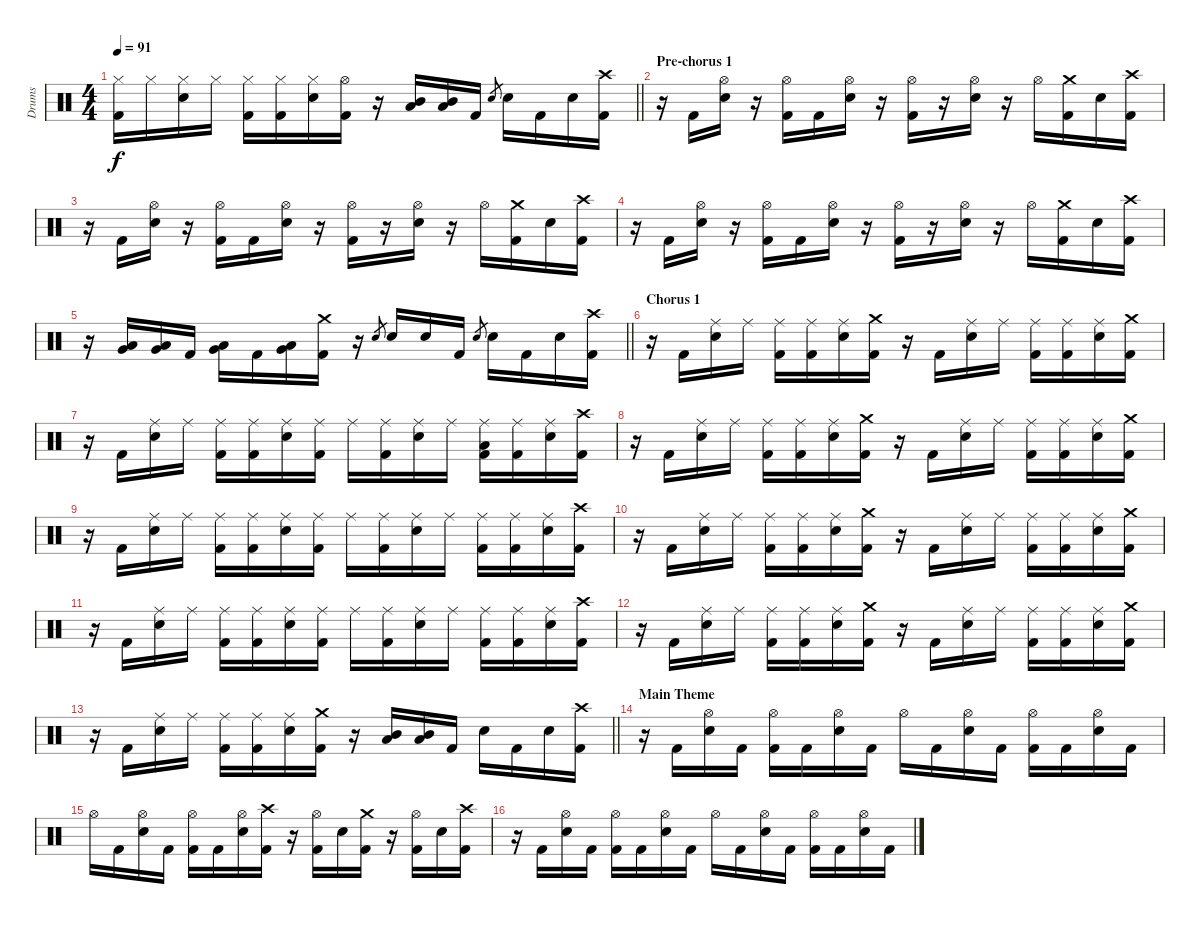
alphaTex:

\track ("Drums" "Drums") {instrument percussion}
\staff {score}
\articulation defaults
\ts (4 4)
\tempo 91
\clef neutral
\barLineRight lightlight
\ks c
("Hi-Hat (closed)" "Kick (hit) 2").16{dy f} "Hi-Hat (closed)".16 ("Hi-Hat (closed)" "Snare (hit) 2").16 "Hi-Hat (closed)".16 ("Hi-Hat (closed)" "Kick (hit) 2").16 ("Hi-Hat (closed)" "Kick (hit) 2").16 ("Hi-Hat (closed)" "Snare (hit) 2").16 ("Hi-Hat (open)" "Kick (hit) 2").16 r.16 ("Mid Tom (hit)" "Low Tom (hit)").16 ("Mid Tom (hit)" "Low Tom (hit)").16 "Kick (hit) 2".16 "Snare (hit) 2".8{gr} "Snare (hit) 2".16 "Kick (hit) 2".16 "Snare (hit) 2".16 ("Crash high (hit)" "Kick (hit) 2").16 |
\section ("" "Pre-chorus 1")
r.16 "Kick (hit) 2".16 ("Hi-Hat (open)" "Snare (hit) 2").16 r.16 ("Hi-Hat (open)" "Kick (hit) 2").16 "Kick (hit) 2".16 ("Hi-Hat (open)" "Snare (hit) 2").16 r.16 ("Hi-Hat (open)" "Kick (hit) 2").16 r.16 ("Hi-Hat (open)" "Snare (hit) 2").16 r.16 "Hi-Hat (open)".16 ("Crash medium (hit)" "Kick (hit) 2").16 "Snare (hit) 2".16 ("Crash high (hit)" "Kick (hit) 2").16 |
r.16 "Kick (hit) 2".16 ("Hi-Hat (open)" "Snare (hit) 2").16 r.16 ("Hi-Hat (open)" "Kick (hit) 2").16 "Kick (hit) 2".16 ("Hi-Hat (open)" "Snare (hit) 2").16 r.16 ("Hi-Hat (open)" "Kick (hit) 2").16 r.16 ("Hi-Hat (open)" "Snare (hit) 2").16 r.16 "Hi-Hat (open)".16 ("Crash medium (hit)" "Kick (hit) 2").16 "Snare (hit) 2".16 ("Crash high (hit)" "Kick (hit) 2").16 |
r.16 "Kick (hit) 2".16 ("Hi-Hat (open)" "Snare (hit) 2").16 r.16 ("Hi-Hat (open)" "Kick (hit) 2").16 "Kick (hit) 2".16 ("Hi-Hat (open)" "Snare (hit) 2").16 r.16 ("Hi-Hat (open)" "Kick (hit) 2").16 r.16 ("Hi-Hat (open)" "Snare (hit) 2").16 r.16 "Hi-Hat (open)".16 ("Crash medium (hit)" "Kick (hit) 2").16 "Snare (hit) 2".16 ("Crash high (hit)" "Kick (hit) 2").16 |
\barLineRight lightlight
r.16 ("Low Tom (hit)" "Very Low Tom (hit)").16 ("Low Tom (hit)" "Very Low Tom (hit)").16 "Kick (hit) 2".16 ("Low Tom (hit)" "Very Low Tom (hit)").16 "Kick (hit) 2".16 ("Low Tom (hit)" "Very Low Tom (hit)").16 ("Crash medium (hit)" "Kick (hit) 2").16 r.16 "Snare (hit) 2".8{gr} "Snare (hit) 2".16 "Snare (hit) 2".16 "Kick (hit) 2".16 "Snare (hit) 2".8{gr} "Snare (hit) 2".16 "Kick (hit) 2".16 "Snare (hit) 2".16 ("Crash high (hit)" "Kick (hit) 2").16 |
\section ("" "Chorus 1")
r.16 "Kick (hit) 2".16 ("Ride (middle)" "Snare (hit) 2").16 "Ride (middle)".16 ("Ride (middle)" "Kick (hit) 2").16 ("Ride (middle)" "Kick (hit) 2").16 ("Ride (middle)" "Snare (hit) 2").16 ("Crash medium (hit)" "Kick (hit) 2").16 r.16 "Kick (hit) 2".16 ("Ride (middle)" "Snare (hit) 2").16 "Ride (middle)".16 ("Ride (middle)" "Kick (hit) 2").16 ("Ride (middle)" "Kick (hit) 2").16 ("Ride (middle)" "Snare (hit) 2").16 ("Crash medium (hit)" "Kick (hit) 2").16 |
r.16 "Kick (hit) 2".16 ("Ride (middle)" "Snare (hit) 2").16 "Ride (middle)".16 ("Ride (middle)" "Kick (hit) 2").16 ("Ride (middle)" "Kick (hit) 2").16 ("Ride (middle)" "Snare (hit) 2").16 ("Ride (middle)" "Kick (hit) 2").16 "Ride (middle)".16 ("Ride (middle)" "Kick (hit) 2").16 ("Ride (middle)" "Snare (hit) 2").16 "Ride (middle)".16 ("Ride (middle)" "Low Tom (hit)" "Kick (hit) 2").16 ("Ride (middle)" "Kick (hit) 2").16 ("Ride (middle)" "Snare (hit) 2").16 ("Crash high (hit)" "Kick (hit) 2").16 |
r.16 "Kick (hit) 2".16 ("Ride (middle)" "Snare (hit) 2").16 "Ride (middle)".16 ("Ride (middle)" "Kick (hit) 2").16 ("Ride (middle)" "Kick (hit) 2").16 ("Ride (middle)" "Snare (hit) 2").16 ("Crash medium (hit)" "Kick (hit) 2").16 r.16 "Kick (hit) 2".16 ("Ride (middle)" "Snare (hit) 2").16 "Ride (middle)".16 ("Ride (middle)" "Kick (hit) 2").16 ("Ride (middle)" "Kick (hit) 2").16 ("Ride (middle)" "Snare (hit) 2").16 ("Crash medium (hit)" "Kick (hit) 2").16 |
r.16 "Kick (hit) 2".16 ("Ride (middle)" "Snare (hit) 2").16 "Ride (middle)".16 ("Ride (middle)" "Kick (hit) 2").16 ("Ride (middle)" "Kick (hit) 2").16 ("Ride (middle)" "Snare (hit) 2").16 ("Ride (middle)" "Kick (hit) 2").16 "Ride (middle)".16 ("Ride (middle)" "Kick (hit) 2").16 ("Ride (middle)" "Snare (hit) 2").16 "Ride (middle)".16 ("Ride (middle)" "Kick (hit) 2").16 ("Ride (middle)" "Kick (hit) 2").16 ("Ride (middle)" "Snare (hit) 2").16 ("Crash high (hit)" "Kick (hit) 2").16 |
r.16 "Kick (hit) 2".16 ("Ride (middle)" "Snare (hit) 2").16 "Ride (middle)".16 ("Ride (middle)" "Kick (hit) 2").16 ("Ride (middle)" "Kick (hit) 2").16 ("Ride (middle)" "Snare (hit) 2").16 ("Crash medium (hit)" "Kick (hit) 2").16 r.16 "Kick (hit) 2".16 ("Ride (middle)" "Snare (hit) 2").16 "Ride (middle)".16 ("Ride (middle)" "Kick (hit) 2").16 ("Ride (middle)" "Kick (hit) 2").16 ("Ride (middle)" "Snare (hit) 2").16 ("Crash medium (hit)" "Kick (hit) 2").16 |
r.16 "Kick (hit) 2".16 ("Ride (middle)" "Snare (hit) 2").16 "Ride (middle)".16 ("Ride (middle)" "Kick (hit) 2").16 ("Ride (middle)" "Kick (hit) 2").16 ("Ride (middle)" "Snare (hit) 2").16 ("Ride (middle)" "Kick (hit) 2").16 "Ride (middle)".16 ("Ride (middle)" "Kick (hit) 2").16 ("Ride (middle)" "Snare (hit) 2").16 "Ride (middle)".16 ("Ride (middle)" "Kick (hit) 2").16 ("Ride (middle)" "Kick (hit) 2").16 ("Ride (middle)" "Snare (hit) 2").16 ("Crash high (hit)" "Kick (hit) 2").16 |
r.16 "Kick (hit) 2".16 ("Ride (middle)" "Snare (hit) 2").16 "Ride (middle)".16 ("Ride (middle)" "Kick (hit) 2").16 ("Ride (middle)" "Kick (hit) 2").16 ("Ride (middle)" "Snare (hit) 2").16 ("Crash medium (hit)" "Kick (hit) 2").16 r.16 "Kick (hit) 2".16 ("Ride (middle)" "Snare (hit) 2").16 "Ride (middle)".16 ("Ride (middle)" "Kick (hit) 2").16 ("Ride (middle)" "Kick (hit) 2").16 ("Ride (middle)" "Snare (hit) 2").16 ("Crash medium (hit)" "Kick (hit) 2").16 |
\barLineRight lightlight
r.16 "Kick (hit) 2".16 ("Ride (middle)" "Snare (hit) 2").16 "Ride (middle)".16 ("Ride (middle)" "Kick (hit) 2").16 ("Ride (middle)" "Kick (hit) 2").16 ("Ride (middle)" "Snare (hit) 2").16 ("Crash medium (hit)" "Kick (hit) 2").16 r.16 ("Mid Tom (hit)" "Low Tom (hit)").16 ("Mid Tom (hit)" "Low Tom (hit)").16 "Kick (hit) 2".16 "Snare (hit) 2".16 "Kick (hit) 2".16 "Snare (hit) 2".16 ("Crash high (hit)" "Kick (hit) 2").16 |
\section ("" "Main Theme")
r.16 "Kick (hit) 2".16 ("Hi-Hat (open)" "Snare (hit) 2").16 "Kick (hit) 2".16 ("Hi-Hat (open)" "Kick (hit) 2").16 "Kick (hit) 2".16 ("Hi-Hat (open)" "Snare (hit) 2").16 "Kick (hit) 2".16 "Hi-Hat (open)".16 "Kick (hit) 2".16 ("Hi-Hat (open)" "Snare (hit) 2").16 "Kick (hit) 2".16 ("Hi-Hat (open)" "Kick (hit) 2").16 "Kick (hit) 2".16 ("Hi-Hat (open)" "Snare (hit) 2").16 "Kick (hit) 2".16 |
"Hi-Hat (open)".16 "Kick (hit) 2".16 ("Hi-Hat (open)" "Snare (hit) 2").16 "Kick (hit) 2".16 ("Hi-Hat (open)" "Kick (hit) 2").16 "Kick (hit) 2".16 ("Hi-Hat (open)" "Snare (hit) 2").16 ("Crash high (hit)" "Kick (hit) 2").16 r.16 ("Hi-Hat (open)" "Kick (hit) 2").16 "Snare (hit) 2".16 ("Crash medium (hit)" "Kick (hit) 2").16 r.16 ("Hi-Hat (open)" "Kick (hit) 2").16 "Snare (hit) 2".16 ("Crash high (hit)" "Kick (hit) 2").16 |
r.16 "Kick (hit) 2".16 ("Hi-Hat (open)" "Snare (hit) 2").16 "Kick (hit) 2".16 ("Hi-Hat (open)" "Kick (hit) 2").16 "Kick (hit) 2".16 ("Hi-Hat (open)" "Snare (hit) 2").16 "Kick (hit) 2".16 "Hi-Hat (open)".16 "Kick (hit) 2".16 ("Hi-Hat (open)" "Snare (hit) 2").16 "Kick (hit) 2".16 ("Hi-Hat (open)" "Kick (hit) 2").16 "Kick (hit) 2".16 ("Hi-Hat (open)" "Snare (hit) 2").16 "Kick (hit) 2".16
